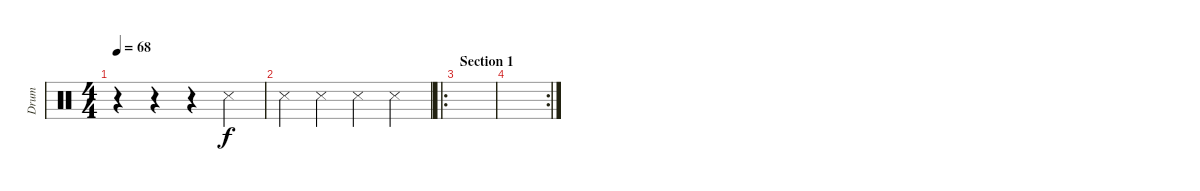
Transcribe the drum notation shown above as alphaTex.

\track ("Drum" "Drum") {instrument percussion}
\staff {score}
\articulation defaults
\ts (4 4)
\tempo 68
\clef neutral
\ks c
r.4{dy f} r.4 r.4 "Snare (side stick) 3".4 |
"Snare (side stick) 3".4 "Snare (side stick) 3".4 "Snare (side stick) 3".4 "Snare (side stick) 3".4 |
\ro
\section ("" "Section 1")
|
\rc 2
